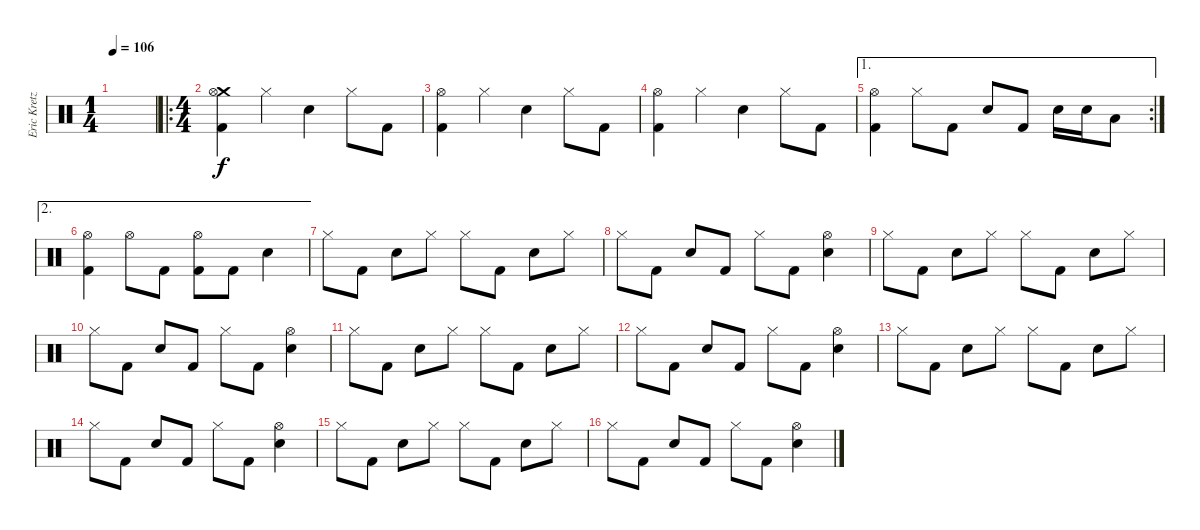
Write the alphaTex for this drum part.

\track ("Eric Kretz" "Eric Kretz") {instrument percussion}
\staff {score}
\articulation defaults
\ts (1 4)
\tempo 106
\clef neutral
\ks c
|
\ro
\ts (4 4)
("Crash medium (hit)" "Hi-Hat (open)" "Kick (hit) 2").4 "Hi-Hat (closed)".4 "Electric Snare (hit)".4 "Hi-Hat (closed)".8 "Kick (hit) 2".8 |
("Hi-Hat (open)" "Kick (hit) 2").4 "Hi-Hat (closed)".4 "Electric Snare (hit)".4 "Hi-Hat (closed)".8 "Kick (hit) 2".8 |
("Hi-Hat (open)" "Kick (hit) 2").4 "Hi-Hat (closed)".4 "Electric Snare (hit)".4 "Hi-Hat (closed)".8 "Kick (hit) 2".8 |
\ae 1
\rc 2
("Hi-Hat (open)" "Kick (hit) 2").4 "Hi-Hat (closed)".8 "Kick (hit) 2".8 "Electric Snare (hit)".8 "Kick (hit) 2".8 "Electric Snare (hit)".16 "Electric Snare (hit)".16 "Low Tom (hit)".8 |
\ae 2
("Hi-Hat (open)" "Kick (hit) 2").4 "Hi-Hat (open)".8 "Kick (hit) 2".8 ("Hi-Hat (open)" "Kick (hit) 2").8 "Kick (hit) 2".8 "Electric Snare (hit)".4 |
"Hi-Hat (closed)".8 "Kick (hit) 2".8 "Electric Snare (hit)".8 "Hi-Hat (closed)".8 "Hi-Hat (closed)".8 "Kick (hit) 2".8 "Electric Snare (hit)".8 "Hi-Hat (closed)".8 |
"Hi-Hat (closed)".8 "Kick (hit) 2".8 "Electric Snare (hit)".8 "Kick (hit) 2".8 "Hi-Hat (closed)".8 "Kick (hit) 2".8 ("Hi-Hat (open)" "Electric Snare (hit)").4 |
"Hi-Hat (closed)".8 "Kick (hit) 2".8 "Electric Snare (hit)".8 "Hi-Hat (closed)".8 "Hi-Hat (closed)".8 "Kick (hit) 2".8 "Electric Snare (hit)".8 "Hi-Hat (closed)".8 |
"Hi-Hat (closed)".8 "Kick (hit) 2".8 "Electric Snare (hit)".8 "Kick (hit) 2".8 "Hi-Hat (closed)".8 "Kick (hit) 2".8 ("Hi-Hat (open)" "Electric Snare (hit)").4 |
"Hi-Hat (closed)".8 "Kick (hit) 2".8 "Electric Snare (hit)".8 "Hi-Hat (closed)".8 "Hi-Hat (closed)".8 "Kick (hit) 2".8 "Electric Snare (hit)".8 "Hi-Hat (closed)".8 |
"Hi-Hat (closed)".8 "Kick (hit) 2".8 "Electric Snare (hit)".8 "Kick (hit) 2".8 "Hi-Hat (closed)".8 "Kick (hit) 2".8 ("Hi-Hat (open)" "Electric Snare (hit)").4 |
"Hi-Hat (closed)".8 "Kick (hit) 2".8 "Electric Snare (hit)".8 "Hi-Hat (closed)".8 "Hi-Hat (closed)".8 "Kick (hit) 2".8 "Electric Snare (hit)".8 "Hi-Hat (closed)".8 |
"Hi-Hat (closed)".8 "Kick (hit) 2".8 "Electric Snare (hit)".8 "Kick (hit) 2".8 "Hi-Hat (closed)".8 "Kick (hit) 2".8 ("Hi-Hat (open)" "Electric Snare (hit)").4 |
"Hi-Hat (closed)".8 "Kick (hit) 2".8 "Electric Snare (hit)".8 "Hi-Hat (closed)".8 "Hi-Hat (closed)".8 "Kick (hit) 2".8 "Electric Snare (hit)".8 "Hi-Hat (closed)".8 |
"Hi-Hat (closed)".8 "Kick (hit) 2".8 "Electric Snare (hit)".8 "Kick (hit) 2".8 "Hi-Hat (closed)".8 "Kick (hit) 2".8 ("Hi-Hat (open)" "Electric Snare (hit)").4
